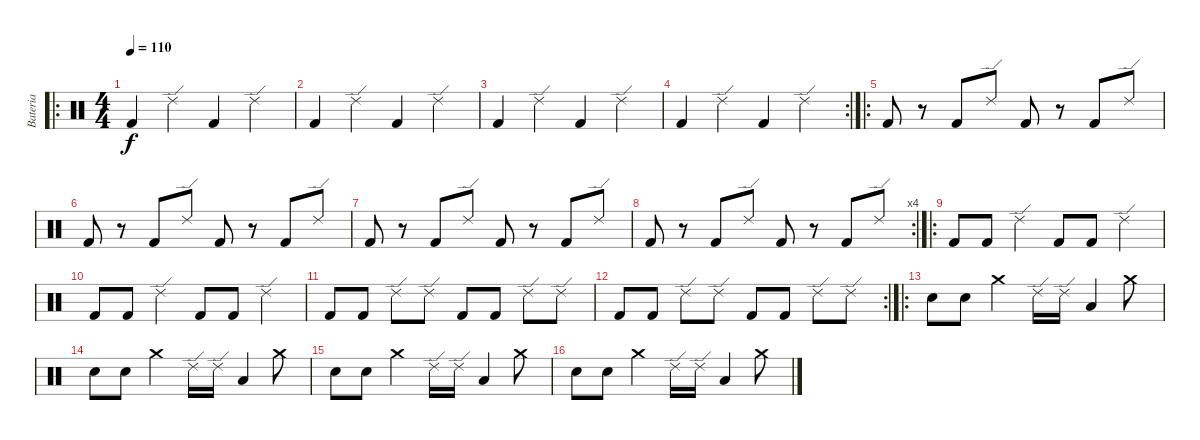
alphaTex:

\track ("Bateria" "Bateria") {instrument percussion}
\staff {score}
\articulation defaults
\ro
\ts (4 4)
\tempo 110
\clef neutral
\ks c "Kick (hit) 2".4{dy f} "Ride (edge) 2".4 "Kick (hit) 2".4 "Ride (edge) 2".4
|
"Kick (hit) 2".4 "Ride (edge) 2".4 "Kick (hit) 2".4 "Ride (edge) 2".4 |
"Kick (hit) 2".4 "Ride (edge) 2".4 "Kick (hit) 2".4 "Ride (edge) 2".4 |
\rc 2 "Kick (hit) 2".4 "Ride (edge) 2".4 "Kick (hit) 2".4 "Ride (edge) 2".4
|
\ro "Kick (hit) 2".8
r.8 "Kick (hit) 2".8 "Ride (edge) 2".8 "Kick (hit) 2".8 r.8 "Kick (hit) 2".8 "Ride (edge) 2".8 |
"Kick (hit) 2".8 r.8 "Kick (hit) 2".8 "Ride (edge) 2".8 "Kick (hit) 2".8 r.8 "Kick (hit) 2".8 "Ride (edge) 2".8 |
"Kick (hit) 2".8 r.8 "Kick (hit) 2".8 "Ride (edge) 2".8 "Kick (hit) 2".8 r.8 "Kick (hit) 2".8 "Ride (edge) 2".8 |
\rc 4 "Kick (hit) 2".8
r.8 "Kick (hit) 2".8 "Ride (edge) 2".8 "Kick (hit) 2".8 r.8 "Kick (hit) 2".8 "Ride (edge) 2".8 |
\ro "Kick (hit) 2".8 "Kick (hit) 2".8 "Ride (edge) 2".4 "Kick (hit) 2".8 "Kick (hit) 2".8 "Ride (edge) 2".4
|
"Kick (hit) 2".8 "Kick (hit) 2".8 "Ride (edge) 2".4 "Kick (hit) 2".8 "Kick (hit) 2".8 "Ride (edge) 2".4 |
"Kick (hit) 2".8 "Kick (hit) 2".8 "Ride (edge) 2".8 "Ride (edge) 2".8 "Kick (hit) 2".8 "Kick (hit) 2".8 "Ride (edge) 2".8 "Ride (edge) 2".8 |
\rc 2 "Kick (hit) 2".8 "Kick (hit) 2".8 "Ride (edge) 2".8 "Ride (edge) 2".8 "Kick (hit) 2".8 "Kick (hit) 2".8 "Ride (edge) 2".8 "Ride (edge) 2".8
|
\ro "Electric Snare (hit)".8 "Electric Snare (hit)".8 "Crash medium (hit)".4 "Ride (edge) 2".16 "Ride (edge) 2".16 "Low Tom (hit)".4 "Crash medium (hit)".8
|
"Electric Snare (hit)".8 "Electric Snare (hit)".8 "Crash medium (hit)".4 "Ride (edge) 2".16 "Ride (edge) 2".16 "Low Tom (hit)".4 "Crash medium (hit)".8 |
"Electric Snare (hit)".8 "Electric Snare (hit)".8 "Crash medium (hit)".4 "Ride (edge) 2".16 "Ride (edge) 2".16 "Low Tom (hit)".4 "Crash medium (hit)".8 |
"Electric Snare (hit)".8 "Electric Snare (hit)".8 "Crash medium (hit)".4 "Ride (edge) 2".16 "Ride (edge) 2".16 "Low Tom (hit)".4 "Crash medium (hit)".8
